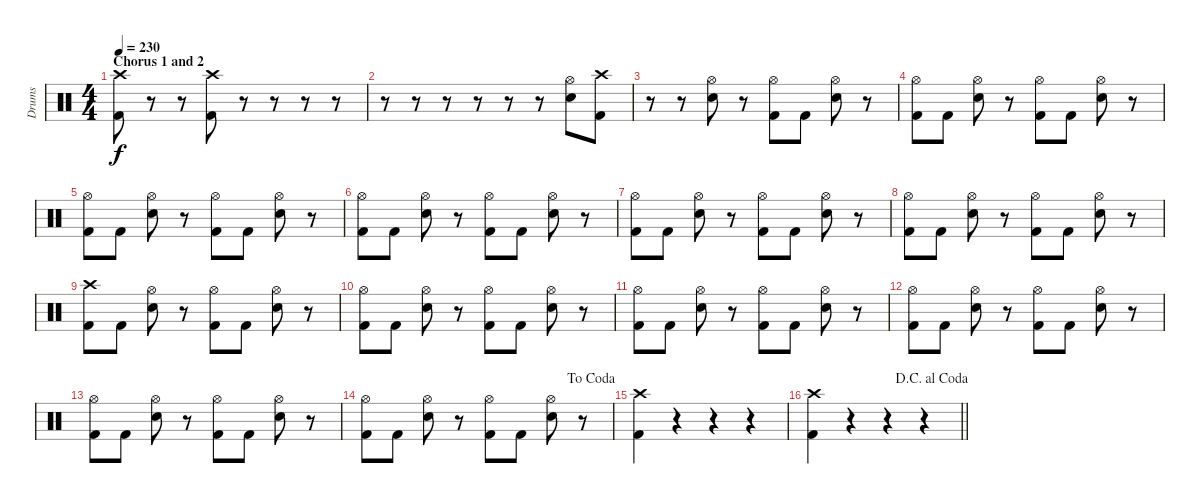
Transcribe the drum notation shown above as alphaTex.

\track ("Drums" "Drums") {instrument percussion}
\staff {score}
\articulation defaults
\ts (4 4)
\section ("" "Chorus 1 and 2")
\tempo 230
\clef neutral
\ks c
("Crash high (hit)" "Kick (hit) 2").8{dy f} r.8 r.8 ("Crash high (hit)" "Kick (hit) 2").8 r.8 r.8 r.8 r.8 |
r.8 r.8 r.8 r.8 r.8 r.8 ("Hi-Hat (open)" "Electric Snare (hit)").8 ("Crash high (hit)" "Kick (hit) 2").8 |
r.8 r.8 ("Hi-Hat (open)" "Electric Snare (hit)").8 r.8 ("Hi-Hat (open)" "Kick (hit) 2").8 "Kick (hit) 2".8 ("Hi-Hat (open)" "Electric Snare (hit)").8 r.8 |
("Hi-Hat (open)" "Kick (hit) 2").8 "Kick (hit) 2".8 ("Hi-Hat (open)" "Electric Snare (hit)").8 r.8 ("Hi-Hat (open)" "Kick (hit) 2").8 "Kick (hit) 2".8 ("Hi-Hat (open)" "Electric Snare (hit)").8 r.8 |
("Hi-Hat (open)" "Kick (hit) 2").8 "Kick (hit) 2".8 ("Hi-Hat (open)" "Electric Snare (hit)").8 r.8 ("Hi-Hat (open)" "Kick (hit) 2").8 "Kick (hit) 2".8 ("Hi-Hat (open)" "Electric Snare (hit)").8 r.8 |
("Hi-Hat (open)" "Kick (hit) 2").8 "Kick (hit) 2".8 ("Hi-Hat (open)" "Electric Snare (hit)").8 r.8 ("Hi-Hat (open)" "Kick (hit) 2").8 "Kick (hit) 2".8 ("Hi-Hat (open)" "Electric Snare (hit)").8 r.8 |
("Hi-Hat (open)" "Kick (hit) 2").8 "Kick (hit) 2".8 ("Hi-Hat (open)" "Electric Snare (hit)").8 r.8 ("Hi-Hat (open)" "Kick (hit) 2").8 "Kick (hit) 2".8 ("Hi-Hat (open)" "Electric Snare (hit)").8 r.8 |
("Hi-Hat (open)" "Kick (hit) 2").8 "Kick (hit) 2".8 ("Hi-Hat (open)" "Electric Snare (hit)").8 r.8 ("Hi-Hat (open)" "Kick (hit) 2").8 "Kick (hit) 2".8 ("Hi-Hat (open)" "Electric Snare (hit)").8 r.8 |
("Crash high (hit)" "Kick (hit) 2").8 "Kick (hit) 2".8 ("Hi-Hat (open)" "Electric Snare (hit)").8 r.8 ("Hi-Hat (open)" "Kick (hit) 2").8 "Kick (hit) 2".8 ("Hi-Hat (open)" "Electric Snare (hit)").8 r.8 |
("Hi-Hat (open)" "Kick (hit) 2").8 "Kick (hit) 2".8 ("Hi-Hat (open)" "Electric Snare (hit)").8 r.8 ("Hi-Hat (open)" "Kick (hit) 2").8 "Kick (hit) 2".8 ("Hi-Hat (open)" "Electric Snare (hit)").8 r.8 |
("Hi-Hat (open)" "Kick (hit) 2").8 "Kick (hit) 2".8 ("Hi-Hat (open)" "Electric Snare (hit)").8 r.8 ("Hi-Hat (open)" "Kick (hit) 2").8 "Kick (hit) 2".8 ("Hi-Hat (open)" "Electric Snare (hit)").8 r.8 |
("Hi-Hat (open)" "Kick (hit) 2").8 "Kick (hit) 2".8 ("Hi-Hat (open)" "Electric Snare (hit)").8 r.8 ("Hi-Hat (open)" "Kick (hit) 2").8 "Kick (hit) 2".8 ("Hi-Hat (open)" "Electric Snare (hit)").8 r.8 |
("Hi-Hat (open)" "Kick (hit) 2").8 "Kick (hit) 2".8 ("Hi-Hat (open)" "Electric Snare (hit)").8 r.8 ("Hi-Hat (open)" "Kick (hit) 2").8 "Kick (hit) 2".8 ("Hi-Hat (open)" "Electric Snare (hit)").8 r.8 |
\jump dacoda
("Hi-Hat (open)" "Kick (hit) 2").8 "Kick (hit) 2".8 ("Hi-Hat (open)" "Electric Snare (hit)").8 r.8 ("Hi-Hat (open)" "Kick (hit) 2").8 "Kick (hit) 2".8 ("Hi-Hat (open)" "Electric Snare (hit)").8 r.8 |
("Crash high (hit)" "Kick (hit) 2").4 r.4 r.4 r.4 |
\jump dacapoalcoda
\barLineRight lightlight
("Crash high (hit)" "Kick (hit) 2").4 r.4 r.4{volume 0} r.4
